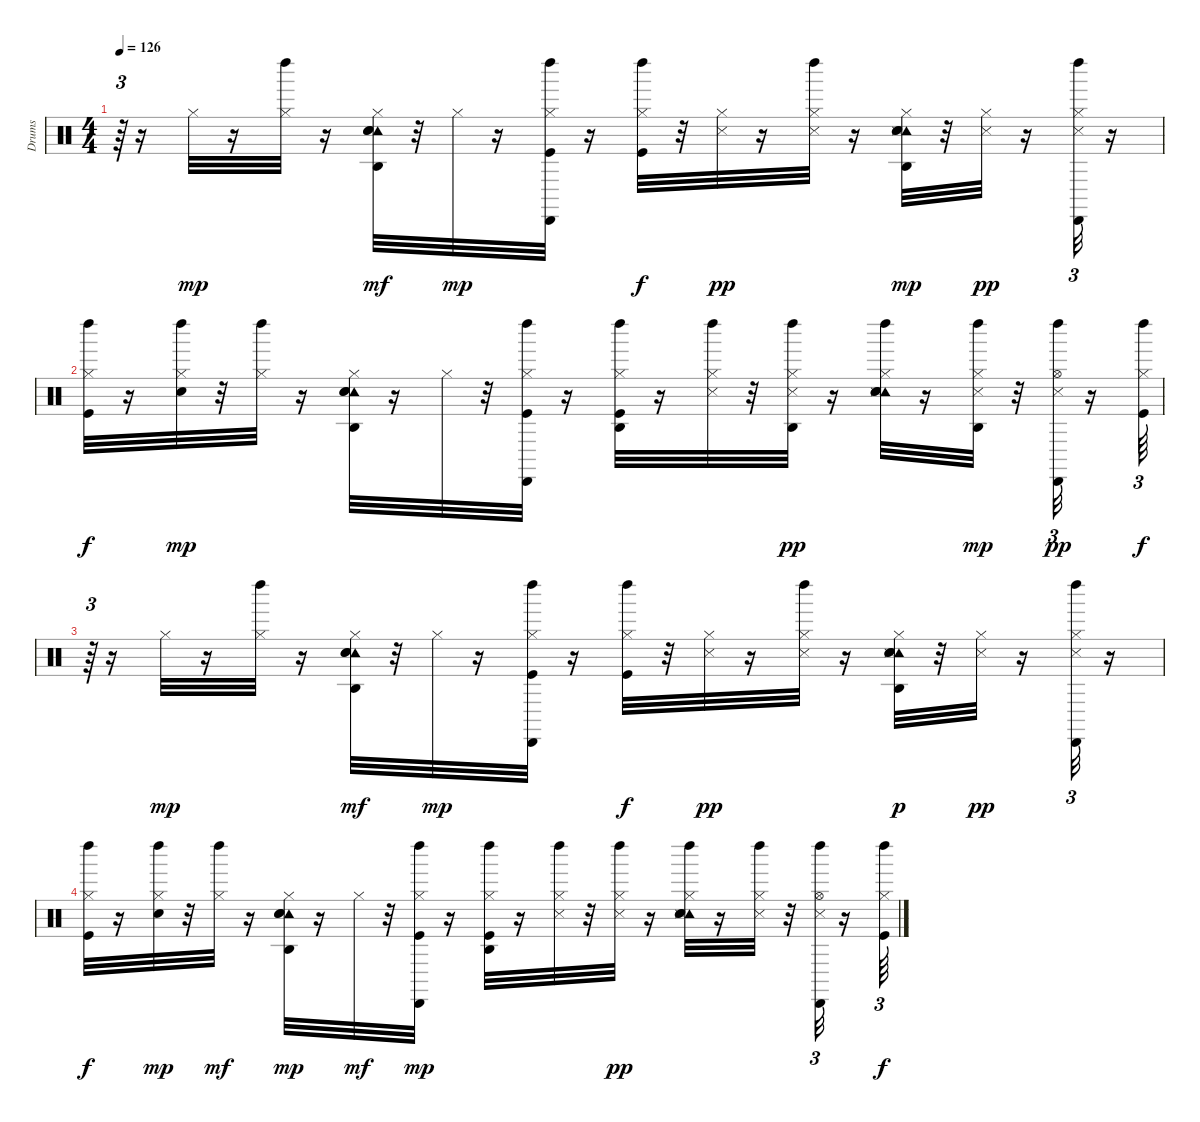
\track ("Drums" "Drums") {instrument percussion}
\staff {score}
\articulation defaults
\ts (4 4)
\tempo 126
\clef neutral
\ks c
r.64{tu (3 2) dy mf} r.16 "Hi-Hat (closed)".32{dy mp} r.16 ("Hi-Hat (closed)" "Left Maraca (hit)").32 r.16 ("Hi-Hat (closed)" "Tambourine (hit)" "Agogo high (hit)" "Snare (hit) 2" "Hand Clap (hit)").32{dy mf} r.32 "Hi-Hat (closed)".32{dy mp} r.16 ("Cabasa (hit)" "Kick (hit)" "Hi-Hat (closed)" "Left Maraca (hit)").32 r.16 ("Hi-Hat (closed)" "Kick (hit)" "Left Maraca (hit)").32{dy f} r.32 ("Hi-Hat (closed)" "Snare (side stick) 3").32{dy pp} r.16 ("Hi-Hat (closed)" "Left Maraca (hit)" "Snare (side stick) 3").32 r.16 ("Hi-Hat (closed)" "Tambourine (hit)" "Hand Clap (hit)" "Snare (hit) 2" "Snare (side stick) 3" "Agogo high (hit)").32{dy mp} r.32 ("Hi-Hat (closed)" "Snare (side stick) 3").32{dy pp} r.16 ("Cabasa (hit)" "Hi-Hat (closed)" "Left Maraca (hit)" "Snare (side stick) 3").32{tu (3 2)} r.16 |
("Kick (hit)" "Hi-Hat (closed)" "Left Maraca (hit)").32{dy f} r.16 ("Electric Snare (hit)" "Hi-Hat (closed)" "Left Maraca (hit)").32{dy mp} r.32 ("Left Maraca (hit)" "Hi-Hat (closed)").32 r.16 ("Tambourine (hit)" "Snare (hit) 2" "Hi-Hat (closed)" "Agogo high (hit)" "Hand Clap (hit)").32 r.16 "Hi-Hat (closed)".32 r.32 ("Kick (hit)" "Hi-Hat (closed)" "Left Maraca (hit)" "Cabasa (hit)").32 r.16 ("Kick (hit)" "Hi-Hat (closed)" "Left Maraca (hit)" "Agogo high (hit)").32 r.16 ("Hi-Hat (closed)" "Snare (side stick) 3" "Left Maraca (hit)").32 r.32 ("Hi-Hat (closed)" "Left Maraca (hit)" "Agogo high (hit)" "Snare (side stick) 3").32{dy pp} r.16 ("Hi-Hat (closed)" "Tambourine (hit)" "Hand Clap (hit)" "Snare (hit) 2" "Snare (side stick) 3" "Left Maraca (hit)").32 r.16 ("Hi-Hat (closed)" "Left Maraca (hit)" "Snare (side stick) 3" "Agogo high (hit)").32{dy mp} r.32 ("Hi-Hat (open)" "Left Maraca (hit)" "Cabasa (hit)" "Snare (side stick) 3").32{tu (3 2) dy pp} r.16 ("Kick (hit)" "Hi-Hat (closed)" "Left Maraca (hit)").64{tu (3 2) dy f} |
r.64{tu (3 2)} r.16 "Hi-Hat (closed)".32{dy mp} r.16 ("Hi-Hat (closed)" "Left Maraca (hit)").32 r.16 ("Hi-Hat (closed)" "Tambourine (hit)" "Agogo high (hit)" "Snare (hit) 2" "Hand Clap (hit)").32{dy mf} r.32 "Hi-Hat (closed)".32{dy mp} r.16 ("Cabasa (hit)" "Kick (hit)" "Hi-Hat (closed)" "Left Maraca (hit)").32 r.16 ("Hi-Hat (closed)" "Kick (hit)" "Left Maraca (hit)").32{dy f} r.32 ("Hi-Hat (closed)" "Snare (side stick) 3").32{dy pp} r.16 ("Hi-Hat (closed)" "Left Maraca (hit)" "Snare (side stick) 3").32 r.16 ("Hi-Hat (closed)" "Tambourine (hit)" "Hand Clap (hit)" "Snare (hit) 2" "Snare (side stick) 3" "Agogo high (hit)").32{dy p} r.32 ("Hi-Hat (closed)" "Snare (side stick) 3").32{dy pp} r.16 ("Cabasa (hit)" "Hi-Hat (closed)" "Left Maraca (hit)" "Snare (side stick) 3").32{tu (3 2)} r.16 |
("Kick (hit)" "Hi-Hat (closed)" "Left Maraca (hit)").32{dy f} r.16 ("Electric Snare (hit)" "Hi-Hat (closed)" "Left Maraca (hit)").32{dy mp} r.32 ("Left Maraca (hit)" "Hi-Hat (closed)").32{dy mf} r.16 ("Tambourine (hit)" "Snare (hit) 2" "Hi-Hat (closed)" "Agogo high (hit)" "Hand Clap (hit)").32{dy mp} r.16 "Hi-Hat (closed)".32{dy mf} r.32 ("Kick (hit)" "Hi-Hat (closed)" "Left Maraca (hit)" "Cabasa (hit)").32{dy mp} r.16 ("Kick (hit)" "Hi-Hat (closed)" "Left Maraca (hit)" "Agogo high (hit)").32 r.16 ("Hi-Hat (closed)" "Snare (side stick) 3" "Left Maraca (hit)").32 r.32 ("Hi-Hat (closed)" "Left Maraca (hit)" "Snare (side stick) 3").32{dy pp} r.16 ("Hi-Hat (closed)" "Tambourine (hit)" "Hand Clap (hit)" "Snare (hit) 2" "Snare (side stick) 3" "Left Maraca (hit)").32 r.16 ("Hi-Hat (closed)" "Left Maraca (hit)" "Snare (side stick) 3").32 r.32 ("Hi-Hat (open)" "Left Maraca (hit)" "Cabasa (hit)" "Snare (side stick) 3").32{tu (3 2)} r.16 ("Kick (hit)" "Hi-Hat (closed)" "Left Maraca (hit)").64{tu (3 2) dy f}
